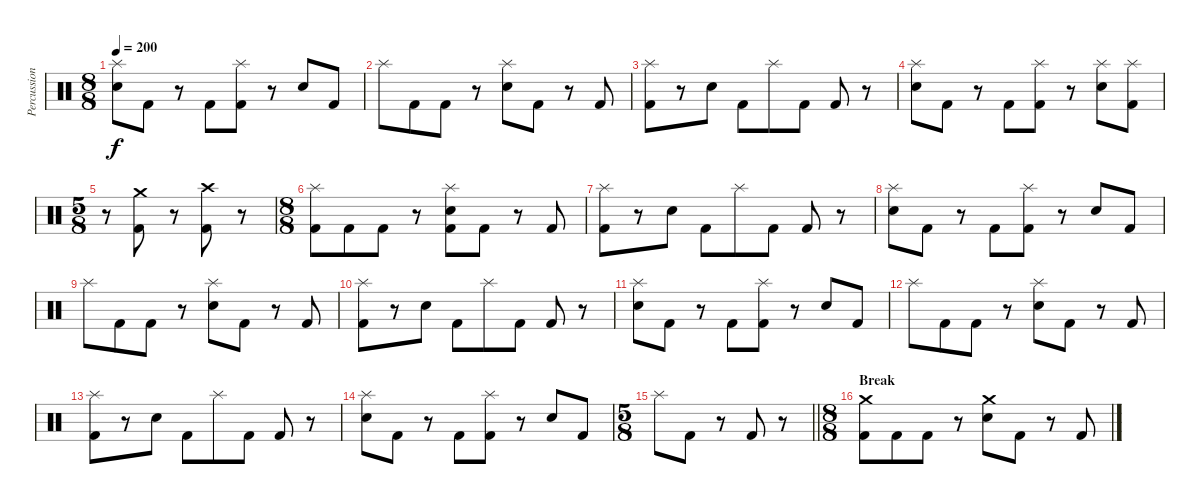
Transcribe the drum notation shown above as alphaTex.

\track ("Percussions" "Percussion") {instrument percussion}
\staff {score}
\articulation defaults
\ts (8 8)
\tempo 200
\clef neutral
\ks c
("Splash (hit)" "Electric Snare (hit)").8{dy f} "Kick (hit) 2".8 r.8 "Kick (hit) 2".8 ("Splash (hit)" "Kick (hit) 2").8 r.8 "Electric Snare (hit)".8 "Kick (hit) 2".8 |
"Splash (hit)".8 "Kick (hit) 2".8 "Kick (hit) 2".8 r.8 ("Splash (hit)" "Electric Snare (hit)").8 "Kick (hit) 2".8 r.8 "Kick (hit) 2".8 |
("Splash (hit)" "Kick (hit) 2").8 r.8 "Electric Snare (hit)".8 "Kick (hit) 2".8 "Splash (hit)".8 "Kick (hit) 2".8 "Kick (hit) 2".8 r.8 |
("Splash (hit)" "Electric Snare (hit)").8 "Kick (hit) 2".8 r.8 "Kick (hit) 2".8 ("Splash (hit)" "Kick (hit) 2").8 r.8 ("Splash (hit)" "Electric Snare (hit)").8 ("Splash (hit)" "Kick (hit) 2").8 |
\ts (5 8)
r.8 ("Crash medium (hit)" "Kick (hit) 2").8 r.8 ("Crash high (hit)" "Kick (hit) 2").8 r.8 |
\ts (8 8)
("Splash (hit)" "Kick (hit) 2").8 "Kick (hit) 2".8 "Kick (hit) 2".8 r.8 ("Splash (hit)" "Electric Snare (hit)" "Kick (hit) 2").8 "Kick (hit) 2".8 r.8 "Kick (hit) 2".8 |
("Splash (hit)" "Kick (hit) 2").8 r.8 "Electric Snare (hit)".8 "Kick (hit) 2".8 "Splash (hit)".8 "Kick (hit) 2".8 "Kick (hit) 2".8 r.8 |
("Splash (hit)" "Electric Snare (hit)").8 "Kick (hit) 2".8 r.8 "Kick (hit) 2".8 ("Splash (hit)" "Kick (hit) 2").8 r.8 "Electric Snare (hit)".8 "Kick (hit) 2".8 |
"Splash (hit)".8 "Kick (hit) 2".8 "Kick (hit) 2".8 r.8 ("Splash (hit)" "Electric Snare (hit)").8 "Kick (hit) 2".8 r.8 "Kick (hit) 2".8 |
("Splash (hit)" "Kick (hit) 2").8 r.8 "Electric Snare (hit)".8 "Kick (hit) 2".8 "Splash (hit)".8 "Kick (hit) 2".8 "Kick (hit) 2".8 r.8 |
("Splash (hit)" "Electric Snare (hit)").8 "Kick (hit) 2".8 r.8 "Kick (hit) 2".8 ("Splash (hit)" "Kick (hit) 2").8 r.8 "Electric Snare (hit)".8 "Kick (hit) 2".8 |
"Splash (hit)".8 "Kick (hit) 2".8 "Kick (hit) 2".8 r.8 ("Splash (hit)" "Electric Snare (hit)").8 "Kick (hit) 2".8 r.8 "Kick (hit) 2".8 |
("Splash (hit)" "Kick (hit) 2").8 r.8 "Electric Snare (hit)".8 "Kick (hit) 2".8 "Splash (hit)".8 "Kick (hit) 2".8 "Kick (hit) 2".8 r.8 |
("Splash (hit)" "Electric Snare (hit)").8 "Kick (hit) 2".8 r.8 "Kick (hit) 2".8 ("Splash (hit)" "Kick (hit) 2").8 r.8 "Electric Snare (hit)".8 "Kick (hit) 2".8 |
\ts (5 8)
\barLineRight lightlight "Splash (hit)".8 "Kick (hit) 2".8
r.8 "Kick (hit) 2".8 r.8 |
\ts (8 8)
\section ("" "Break")
("Crash medium (hit)" "Kick (hit) 2").8 "Kick (hit) 2".8 "Kick (hit) 2".8 r.8 ("Crash medium (hit)" "Electric Snare (hit)").8 "Kick (hit) 2".8 r.8 "Kick (hit) 2".8
